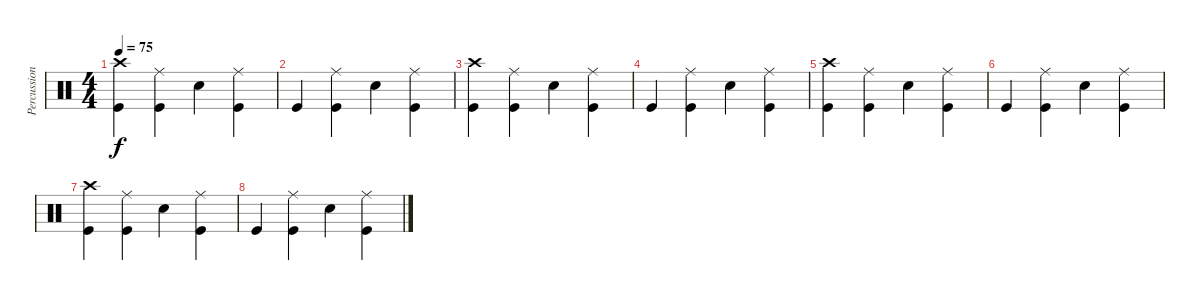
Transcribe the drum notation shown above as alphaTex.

\track ("Percussion" "Percussion") {instrument percussion}
\staff {score}
\articulation defaults
\ts (4 4)
\tempo 75
\clef neutral
\ks c
("Crash high (hit)" "Kick (hit)").4{dy f} ("Ride (middle)" "Kick (hit)").4 "Snare (hit) 2".4 ("Ride (middle)" "Kick (hit)").4 |
"Kick (hit)".4 ("Ride (middle)" "Kick (hit)").4 "Snare (hit) 2".4 ("Ride (middle)" "Kick (hit)").4 |
("Crash high (hit)" "Kick (hit)").4 ("Ride (middle)" "Kick (hit)").4 "Snare (hit) 2".4 ("Ride (middle)" "Kick (hit)").4 |
"Kick (hit)".4 ("Ride (middle)" "Kick (hit)").4 "Snare (hit) 2".4 ("Ride (middle)" "Kick (hit)").4 |
("Crash high (hit)" "Kick (hit)").4 ("Ride (middle)" "Kick (hit)").4 "Snare (hit) 2".4 ("Ride (middle)" "Kick (hit)").4 |
"Kick (hit)".4 ("Ride (middle)" "Kick (hit)").4 "Snare (hit) 2".4 ("Ride (middle)" "Kick (hit)").4 |
("Crash high (hit)" "Kick (hit)").4 ("Ride (middle)" "Kick (hit)").4 "Snare (hit) 2".4 ("Ride (middle)" "Kick (hit)").4 |
"Kick (hit)".4 ("Ride (middle)" "Kick (hit)").4 "Snare (hit) 2".4 ("Ride (middle)" "Kick (hit)").4
